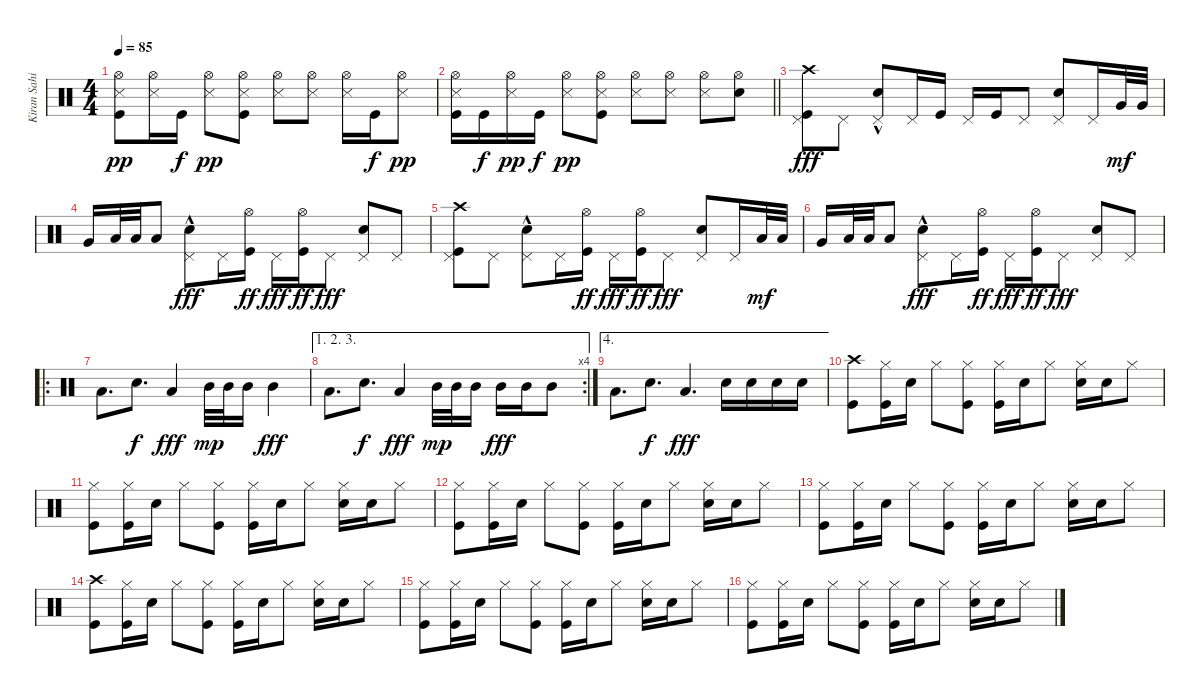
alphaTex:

\track ("Kiran Sahi - Drums" "Kiran Sahi") {instrument percussion}
\staff {score}
\articulation defaults
\ts (4 4)
\tempo 85
\clef neutral
\ks c
("Snare (side stick) 3" "Kick (hit)" "Hi-Hat (open)").8{dy pp} ("Snare (side stick) 3" "Hi-Hat (open)").16 "Kick (hit)".16{dy f} ("Snare (side stick) 3" "Hi-Hat (open)").8{dy pp} ("Snare (side stick) 3" "Hi-Hat (open)" "Kick (hit)").8 ("Snare (side stick) 3" "Hi-Hat (open)").8 ("Snare (side stick) 3" "Hi-Hat (open)").8 ("Snare (side stick) 3" "Hi-Hat (open)").16 "Kick (hit)".16{dy f} ("Snare (side stick) 3" "Hi-Hat (open)").8{dy pp} |
\barLineRight lightlight
("Snare (side stick) 3" "Kick (hit)" "Hi-Hat (open)").16 "Kick (hit)".16{dy f} ("Snare (side stick) 3" "Hi-Hat (open)").16{dy pp} "Kick (hit)".16{dy f} ("Snare (side stick) 3" "Hi-Hat (open)").8{dy pp} ("Snare (side stick) 3" "Hi-Hat (open)" "Kick (hit)").8 ("Snare (side stick) 3" "Hi-Hat (open)").8 ("Snare (side stick) 3" "Hi-Hat (open)").8 ("Snare (side stick) 3" "Hi-Hat (open)").8 ("Snare (hit) 2" "Hi-Hat (open)").8 |
("Kick (hit)" "Pedal Hi-Hat (hit)" "Crash high (hit)").8{dy fff} "Pedal Hi-Hat (hit)".8 ("Pedal Hi-Hat (hit)" "Snare (hit) 2"{hac}).8 "Pedal Hi-Hat (hit)".16 "Kick (hit)".16 "Pedal Hi-Hat (hit)".16 "Kick (hit)".16 "Pedal Hi-Hat (hit)".8 ("Snare (hit) 2" "Pedal Hi-Hat (hit)").8 "Pedal Hi-Hat (hit)".16 "Very Low Tom (hit)".32{dy mf} "Very Low Tom (hit)".32 |
"Very Low Tom (hit)".16 "Low Floor Tom (hit)".32 "Low Floor Tom (hit)".32 "Low Floor Tom (hit)".8 ("Pedal Hi-Hat (hit)" "Snare (hit) 2"{hac}).8{dy fff} "Pedal Hi-Hat (hit)".16 ("Kick (hit)" "Hi-Hat (open)").16{dy ff} "Pedal Hi-Hat (hit)".16{dy fff} ("Kick (hit)" "Hi-Hat (open)").16{dy ff} "Pedal Hi-Hat (hit)".8{dy fff} ("Snare (hit) 2" "Pedal Hi-Hat (hit)").8 "Pedal Hi-Hat (hit)".8 |
("Kick (hit)" "Pedal Hi-Hat (hit)" "Crash high (hit)").8 "Pedal Hi-Hat (hit)".8 ("Pedal Hi-Hat (hit)" "Snare (hit) 2"{hac}).8 "Pedal Hi-Hat (hit)".16 ("Kick (hit)" "Hi-Hat (open)").16{dy ff} "Pedal Hi-Hat (hit)".16{dy fff} ("Kick (hit)" "Hi-Hat (open)").16{dy ff} "Pedal Hi-Hat (hit)".8{dy fff} ("Snare (hit) 2" "Pedal Hi-Hat (hit)").8 "Pedal Hi-Hat (hit)".16 "Low Floor Tom (hit)".32{dy mf} "Low Floor Tom (hit)".32 |
"Very Low Tom (hit)".16 "Low Floor Tom (hit)".32 "Low Floor Tom (hit)".32 "Low Floor Tom (hit)".8 ("Pedal Hi-Hat (hit)" "Snare (hit) 2"{hac}).8{dy fff} "Pedal Hi-Hat (hit)".16 ("Kick (hit)" "Hi-Hat (open)").16{dy ff} "Pedal Hi-Hat (hit)".16{dy fff} ("Kick (hit)" "Hi-Hat (open)").16{dy ff} "Pedal Hi-Hat (hit)".8{dy fff} ("Snare (hit) 2" "Pedal Hi-Hat (hit)").8 "Pedal Hi-Hat (hit)".8 |
\ro "Low Floor Tom (hit)".8{d} "Snare (hit) 2".8{d dy f} "Low Floor Tom (hit)".4{dy fff} "Mid Tom (hit)".32{dy mp} "Mid Tom (hit)".32 "Mid Tom (hit)".16 "Mid Tom (hit)".4{dy fff}
|
\ae (1 2 3)
\rc 4 "Low Floor Tom (hit)".8{d} "Snare (hit) 2".8{d dy f} "Low Floor Tom (hit)".4{dy fff} "Mid Tom (hit)".32{dy mp} "Mid Tom (hit)".32 "Mid Tom (hit)".16 "Mid Tom (hit)".16{dy fff} "Mid Tom (hit)".16 "Mid Tom (hit)".8
|
\ae 4 "Low Floor Tom (hit)".8{d} "Snare (hit) 2".8{d dy f} "Low Floor Tom (hit)".4{d dy fff} "Snare (hit) 2".16 "Snare (hit) 2".16 "Snare (hit) 2".16 "Snare (hit) 2".16
|
("Kick (hit)" "Crash high (hit)").8 ("Hi-Hat (closed)" "Kick (hit)").16 "Snare (hit) 2".16 "Hi-Hat (closed)".8 ("Hi-Hat (closed)" "Kick (hit)").8 ("Hi-Hat (closed)" "Kick (hit)").16 "Snare (hit) 2".16 "Hi-Hat (closed)".8 ("Hi-Hat (closed)" "Snare (hit) 2").16 "Snare (hit) 2".16 "Hi-Hat (closed)".8 |
("Hi-Hat (closed)" "Kick (hit)").8 ("Hi-Hat (closed)" "Kick (hit)").16 "Snare (hit) 2".16 "Hi-Hat (closed)".8 ("Hi-Hat (closed)" "Kick (hit)").8 ("Hi-Hat (closed)" "Kick (hit)").16 "Snare (hit) 2".16 "Hi-Hat (closed)".8 ("Hi-Hat (closed)" "Snare (hit) 2").16 "Snare (hit) 2".16 "Hi-Hat (closed)".8 |
("Hi-Hat (closed)" "Kick (hit)").8 ("Hi-Hat (closed)" "Kick (hit)").16 "Snare (hit) 2".16 "Hi-Hat (closed)".8 ("Hi-Hat (closed)" "Kick (hit)").8 ("Hi-Hat (closed)" "Kick (hit)").16 "Snare (hit) 2".16 "Hi-Hat (closed)".8 ("Hi-Hat (closed)" "Snare (hit) 2").16 "Snare (hit) 2".16 "Hi-Hat (closed)".8 |
("Hi-Hat (closed)" "Kick (hit)").8 ("Hi-Hat (closed)" "Kick (hit)").16 "Snare (hit) 2".16 "Hi-Hat (closed)".8 ("Hi-Hat (closed)" "Kick (hit)").8 ("Hi-Hat (closed)" "Kick (hit)").16 "Snare (hit) 2".16 "Hi-Hat (closed)".8 ("Hi-Hat (closed)" "Snare (hit) 2").16 "Snare (hit) 2".16 "Hi-Hat (closed)".8 |
("Kick (hit)" "Crash high (hit)").8 ("Hi-Hat (closed)" "Kick (hit)").16 "Snare (hit) 2".16 "Hi-Hat (closed)".8 ("Hi-Hat (closed)" "Kick (hit)").8 ("Hi-Hat (closed)" "Kick (hit)").16 "Snare (hit) 2".16 "Hi-Hat (closed)".8 ("Hi-Hat (closed)" "Snare (hit) 2").16 "Snare (hit) 2".16 "Hi-Hat (closed)".8 |
("Hi-Hat (closed)" "Kick (hit)").8 ("Hi-Hat (closed)" "Kick (hit)").16 "Snare (hit) 2".16 "Hi-Hat (closed)".8 ("Hi-Hat (closed)" "Kick (hit)").8 ("Hi-Hat (closed)" "Kick (hit)").16 "Snare (hit) 2".16 "Hi-Hat (closed)".8 ("Hi-Hat (closed)" "Snare (hit) 2").16 "Snare (hit) 2".16 "Hi-Hat (closed)".8 |
("Hi-Hat (closed)" "Kick (hit)").8 ("Hi-Hat (closed)" "Kick (hit)").16 "Snare (hit) 2".16 "Hi-Hat (closed)".8 ("Hi-Hat (closed)" "Kick (hit)").8 ("Hi-Hat (closed)" "Kick (hit)").16 "Snare (hit) 2".16 "Hi-Hat (closed)".8 ("Hi-Hat (closed)" "Snare (hit) 2").16 "Snare (hit) 2".16 "Hi-Hat (closed)".8
